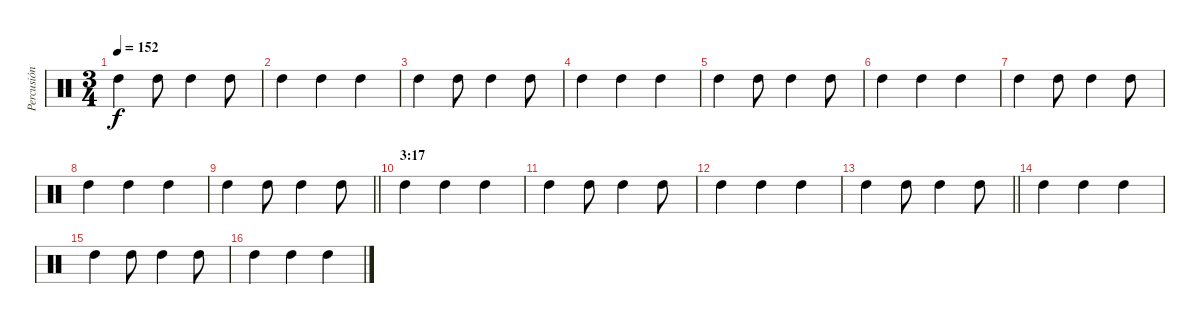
\track ("Percusión" "Percusión") {instrument percussion}
\staff {score}
\articulation defaults
\ts (3 4)
\tempo 152
\clef neutral
\ks c "High Tom (hit)".4{dy f} "High Tom (hit)".8 "High Tom (hit)".4 "High Tom (hit)".8
|
"High Tom (hit)".4 "High Tom (hit)".4 "High Tom (hit)".4 |
"High Tom (hit)".4 "High Tom (hit)".8 "High Tom (hit)".4 "High Tom (hit)".8 |
"High Tom (hit)".4 "High Tom (hit)".4 "High Tom (hit)".4 |
"High Tom (hit)".4 "High Tom (hit)".8 "High Tom (hit)".4 "High Tom (hit)".8 |
"High Tom (hit)".4 "High Tom (hit)".4 "High Tom (hit)".4 |
"High Tom (hit)".4 "High Tom (hit)".8 "High Tom (hit)".4 "High Tom (hit)".8 |
"High Tom (hit)".4 "High Tom (hit)".4 "High Tom (hit)".4 |
\barLineRight lightlight "High Tom (hit)".4 "High Tom (hit)".8 "High Tom (hit)".4 "High Tom (hit)".8
|
\section ("" "3:17")
"High Tom (hit)".4 "High Tom (hit)".4 "High Tom (hit)".4 |
"High Tom (hit)".4 "High Tom (hit)".8 "High Tom (hit)".4 "High Tom (hit)".8 |
"High Tom (hit)".4 "High Tom (hit)".4 "High Tom (hit)".4 |
\barLineRight lightlight "High Tom (hit)".4 "High Tom (hit)".8 "High Tom (hit)".4 "High Tom (hit)".8
|
"High Tom (hit)".4 "High Tom (hit)".4 "High Tom (hit)".4 |
"High Tom (hit)".4 "High Tom (hit)".8 "High Tom (hit)".4 "High Tom (hit)".8 |
"High Tom (hit)".4 "High Tom (hit)".4 "High Tom (hit)".4
